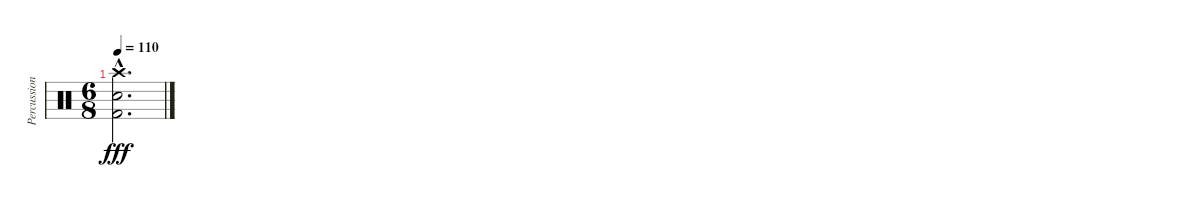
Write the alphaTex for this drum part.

\track ("Percussion" "Percussion") {instrument percussion}
\staff {score}
\articulation defaults
\ts (6 8)
\tempo 110
\clef neutral
\ks c
("Crash high (hit)"{hac} "Snare (hit) 2"{hac} "Kick (hit) 2"{hac}).2{d dy fff}
